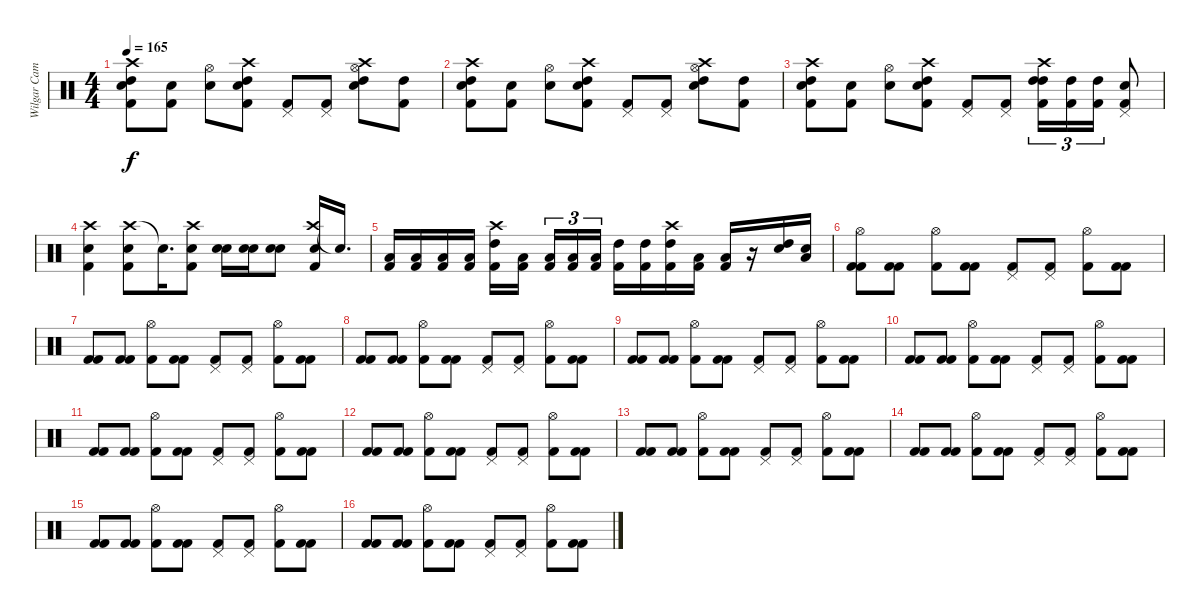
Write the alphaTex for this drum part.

\track ("Wilgar Campbell" "Wilgar Cam") {instrument percussion}
\staff {score}
\articulation defaults
\ts (4 4)
\tempo 165
\clef neutral
\ks c
("High Tom (hit)" "Kick (hit) 2" "Snare (hit) 2" "Crash high (hit)").8{dy f} ("Kick (hit) 2" "Snare (hit) 2").8 ("Hi-Hat (open)" "Snare (hit) 2").8 ("High Tom (hit)" "Kick (hit) 2" "Snare (hit) 2" "Crash high (hit)").8 ("Pedal Hi-Hat (hit)" "Kick (hit) 2").8 ("Pedal Hi-Hat (hit)" "Kick (hit) 2").8 ("High Tom (hit)" "Hi-Hat (open)" "Snare (hit) 2" "Crash high (hit)").8 ("Kick (hit) 2" "High Tom (hit)").8 |
("High Tom (hit)" "Kick (hit) 2" "Snare (hit) 2" "Crash high (hit)").8 ("Kick (hit) 2" "Snare (hit) 2").8 ("Hi-Hat (open)" "Snare (hit) 2").8 ("High Tom (hit)" "Kick (hit) 2" "Snare (hit) 2" "Crash high (hit)").8 ("Pedal Hi-Hat (hit)" "Kick (hit) 2").8 ("Pedal Hi-Hat (hit)" "Kick (hit) 2").8 ("High Tom (hit)" "Hi-Hat (open)" "Snare (hit) 2" "Crash high (hit)").8 ("Kick (hit) 2" "High Tom (hit)").8 |
("High Tom (hit)" "Kick (hit) 2" "Snare (hit) 2" "Crash high (hit)").8 ("Kick (hit) 2" "Snare (hit) 2").8 ("Hi-Hat (open)" "Snare (hit) 2").8 ("High Tom (hit)" "Kick (hit) 2" "Snare (hit) 2" "Crash high (hit)").8 ("Pedal Hi-Hat (hit)" "Kick (hit) 2").8 ("Pedal Hi-Hat (hit)" "Kick (hit) 2").8 ("High Tom (hit)" "Kick (hit) 2" "High Tom (hit)" "Crash high (hit)").16{tu (3 2)} ("Kick (hit) 2" "High Tom (hit)").16{tu (3 2)} ("Kick (hit) 2" "High Tom (hit)").16{tu (3 2)} ("Snare (hit) 2" "Pedal Hi-Hat (hit)" "Kick (hit) 2").8 |
("Crash high (hit)" "Kick (hit) 2" "Snare (hit) 2").4 ("Crash high (hit)" "Kick (hit) 2" "Snare (hit) 2").8 "Snare (hit)"{t}.16{d} ("Crash high (hit)" "Electric Snare (hit)" "Kick (hit) 2").8 ("Snare (hit) 2" "Snare (hit) 2").16 ("Electric Snare (hit)" "Electric Snare (hit)").16 ("Snare (hit) 2" "Snare (hit) 2").8 ("Crash high (hit)" "Kick (hit) 2" "Electric Snare (hit)").16 "Snare (hit)"{t}.16{d} |
("Low Tom (hit)" "Kick (hit) 2").16 ("Low Tom (hit)" "Kick (hit) 2").16 ("Low Tom (hit)" "Kick (hit) 2").16 ("Low Tom (hit)" "Kick (hit) 2").16 ("Crash high (hit)" "High Tom (hit)" "Kick (hit) 2").16 ("Low Tom (hit)" "Kick (hit) 2").16 ("Low Tom (hit)" "Kick (hit) 2").16{tu (3 2)} ("Low Tom (hit)" "Kick (hit) 2").16{tu (3 2)} ("Low Tom (hit)" "Kick (hit) 2").16{tu (3 2)} ("High Tom (hit)" "Kick (hit) 2").16 ("High Tom (hit)" "Kick (hit) 2").16 ("Crash high (hit)" "High Tom (hit)" "Kick (hit) 2").16 ("Low Tom (hit)" "Kick (hit) 2").16 ("Low Tom (hit)" "Kick (hit) 2").16 r.16 ("High Tom (hit)" "Snare (hit) 2").16 ("Low Tom (hit)" "Snare (hit) 2").16 |
("Hi-Hat (open)" "Kick (hit) 2" "Kick (hit) 2").8 ("Kick (hit) 2" "Kick (hit) 2").8 ("Hi-Hat (open)" "Kick (hit) 2").8 ("Kick (hit) 2" "Kick (hit) 2").8 ("Pedal Hi-Hat (hit)" "Kick (hit) 2").8 ("Pedal Hi-Hat (hit)" "Kick (hit) 2").8 ("Hi-Hat (open)" "Kick (hit) 2").8 ("Kick (hit) 2" "Kick (hit) 2").8 |
("Kick (hit) 2" "Kick (hit) 2").8 ("Kick (hit) 2" "Kick (hit) 2").8 ("Hi-Hat (open)" "Kick (hit) 2").8 ("Kick (hit) 2" "Kick (hit) 2").8 ("Pedal Hi-Hat (hit)" "Kick (hit) 2").8 ("Pedal Hi-Hat (hit)" "Kick (hit) 2").8 ("Hi-Hat (open)" "Kick (hit) 2").8 ("Kick (hit) 2" "Kick (hit) 2").8 |
("Kick (hit) 2" "Kick (hit) 2").8 ("Kick (hit) 2" "Kick (hit) 2").8 ("Hi-Hat (open)" "Kick (hit) 2").8 ("Kick (hit) 2" "Kick (hit) 2").8 ("Pedal Hi-Hat (hit)" "Kick (hit) 2").8 ("Pedal Hi-Hat (hit)" "Kick (hit) 2").8 ("Hi-Hat (open)" "Kick (hit) 2").8 ("Kick (hit) 2" "Kick (hit) 2").8 |
("Kick (hit) 2" "Kick (hit) 2").8 ("Kick (hit) 2" "Kick (hit) 2").8 ("Hi-Hat (open)" "Kick (hit) 2").8 ("Kick (hit) 2" "Kick (hit) 2").8 ("Pedal Hi-Hat (hit)" "Kick (hit) 2").8 ("Pedal Hi-Hat (hit)" "Kick (hit) 2").8 ("Hi-Hat (open)" "Kick (hit) 2").8 ("Kick (hit) 2" "Kick (hit) 2").8 |
("Kick (hit) 2" "Kick (hit) 2").8 ("Kick (hit) 2" "Kick (hit) 2").8 ("Hi-Hat (open)" "Kick (hit) 2").8 ("Kick (hit) 2" "Kick (hit) 2").8 ("Pedal Hi-Hat (hit)" "Kick (hit) 2").8 ("Pedal Hi-Hat (hit)" "Kick (hit) 2").8 ("Hi-Hat (open)" "Kick (hit) 2").8 ("Kick (hit) 2" "Kick (hit) 2").8 |
("Kick (hit) 2" "Kick (hit) 2").8 ("Kick (hit) 2" "Kick (hit) 2").8 ("Hi-Hat (open)" "Kick (hit) 2").8 ("Kick (hit) 2" "Kick (hit) 2").8 ("Pedal Hi-Hat (hit)" "Kick (hit) 2").8 ("Pedal Hi-Hat (hit)" "Kick (hit) 2").8 ("Hi-Hat (open)" "Kick (hit) 2").8 ("Kick (hit) 2" "Kick (hit) 2").8 |
("Kick (hit) 2" "Kick (hit) 2").8 ("Kick (hit) 2" "Kick (hit) 2").8 ("Hi-Hat (open)" "Kick (hit) 2").8 ("Kick (hit) 2" "Kick (hit) 2").8 ("Pedal Hi-Hat (hit)" "Kick (hit) 2").8 ("Pedal Hi-Hat (hit)" "Kick (hit) 2").8 ("Hi-Hat (open)" "Kick (hit) 2").8 ("Kick (hit) 2" "Kick (hit) 2").8 |
("Kick (hit) 2" "Kick (hit) 2").8 ("Kick (hit) 2" "Kick (hit) 2").8 ("Hi-Hat (open)" "Kick (hit) 2").8 ("Kick (hit) 2" "Kick (hit) 2").8 ("Pedal Hi-Hat (hit)" "Kick (hit) 2").8 ("Pedal Hi-Hat (hit)" "Kick (hit) 2").8 ("Hi-Hat (open)" "Kick (hit) 2").8 ("Kick (hit) 2" "Kick (hit) 2").8 |
("Kick (hit) 2" "Kick (hit) 2").8 ("Kick (hit) 2" "Kick (hit) 2").8 ("Hi-Hat (open)" "Kick (hit) 2").8 ("Kick (hit) 2" "Kick (hit) 2").8 ("Pedal Hi-Hat (hit)" "Kick (hit) 2").8 ("Pedal Hi-Hat (hit)" "Kick (hit) 2").8 ("Hi-Hat (open)" "Kick (hit) 2").8 ("Kick (hit) 2" "Kick (hit) 2").8 |
("Kick (hit) 2" "Kick (hit) 2").8 ("Kick (hit) 2" "Kick (hit) 2").8 ("Hi-Hat (open)" "Kick (hit) 2").8 ("Kick (hit) 2" "Kick (hit) 2").8 ("Pedal Hi-Hat (hit)" "Kick (hit) 2").8 ("Pedal Hi-Hat (hit)" "Kick (hit) 2").8 ("Hi-Hat (open)" "Kick (hit) 2").8 ("Kick (hit) 2" "Kick (hit) 2").8 |
("Kick (hit) 2" "Kick (hit) 2").8 ("Kick (hit) 2" "Kick (hit) 2").8 ("Hi-Hat (open)" "Kick (hit) 2").8 ("Kick (hit) 2" "Kick (hit) 2").8 ("Pedal Hi-Hat (hit)" "Kick (hit) 2").8 ("Pedal Hi-Hat (hit)" "Kick (hit) 2").8 ("Hi-Hat (open)" "Kick (hit) 2").8 ("Kick (hit) 2" "Kick (hit) 2").8
